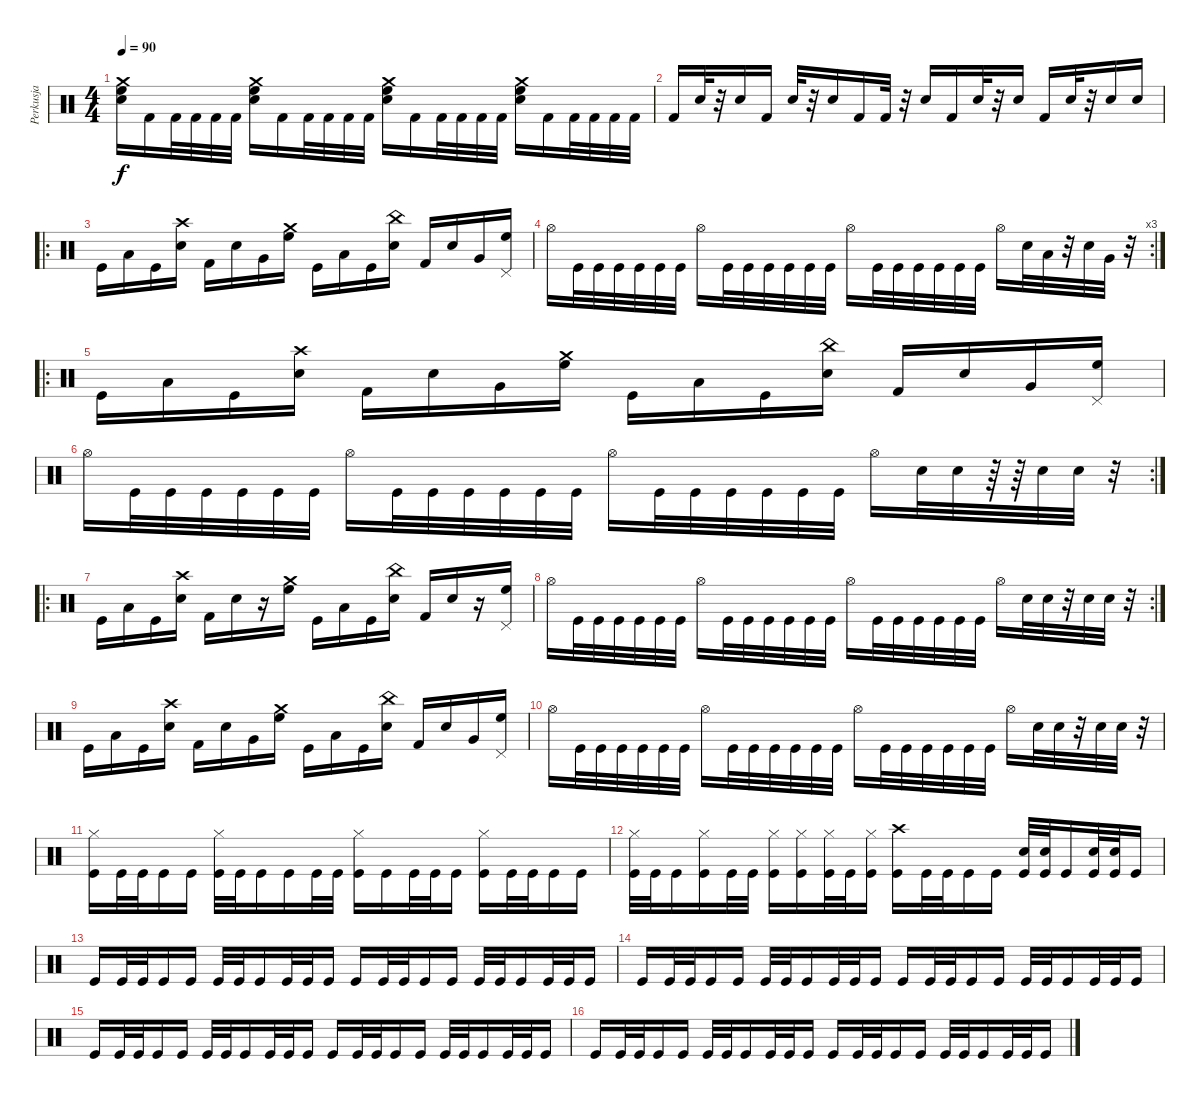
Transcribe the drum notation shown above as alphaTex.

\track ("Perkusja" "Perkusja") {instrument percussion}
\staff {score}
\articulation defaults
\ts (4 4)
\tempo 90
\clef neutral
\ks c
("Crash medium (hit)" "High Floor Tom (hit)" "Electric Snare (hit)").16{dy f} "Kick (hit) 2".16 "Kick (hit) 2".32 "Kick (hit) 2".32 "Kick (hit) 2".32 "Kick (hit) 2".32 ("Crash medium (hit)" "High Floor Tom (hit)" "Electric Snare (hit)").16 "Kick (hit) 2".16 "Kick (hit) 2".32 "Kick (hit) 2".32 "Kick (hit) 2".32 "Kick (hit) 2".32 ("Crash medium (hit)" "High Floor Tom (hit)" "Electric Snare (hit)").16 "Kick (hit) 2".16 "Kick (hit) 2".32 "Kick (hit) 2".32 "Kick (hit) 2".32 "Kick (hit) 2".32 ("Crash medium (hit)" "High Floor Tom (hit)" "Electric Snare (hit)").16 "Kick (hit) 2".16 "Kick (hit) 2".32 "Kick (hit) 2".32 "Kick (hit) 2".32 "Kick (hit) 2".32 |
"Kick (hit) 2".16 "Electric Snare (hit)".32 r.32 "Electric Snare (hit)".16 "Kick (hit) 2".16 "Electric Snare (hit)".32 r.32 "Electric Snare (hit)".16 "Kick (hit) 2".16 "Kick (hit) 2".32 r.32 "Electric Snare (hit)".16 "Kick (hit) 2".16 "Electric Snare (hit)".32 r.32 "Electric Snare (hit)".16 "Kick (hit) 2".16 "Electric Snare (hit)".32 r.32 "Electric Snare (hit)".16 "Electric Snare (hit)".16 |
\ro "Kick (hit)".16 "Low Tom (hit)".16 "Kick (hit)".16
("Crash high (hit)" "Electric Snare (hit)").16 "Kick (hit) 2".16 "Snare (hit) 2".16 "Very Low Tom (hit)".16 ("Crash medium (hit)" "High Floor Tom (hit)").16 "Kick (hit)".16 "Low Tom (hit)".16 "Kick (hit)".16 ("China (hit)" "Electric Snare (hit)").16 "Kick (hit) 2".16 "Snare (hit) 2".16 "Very Low Tom (hit)".16 ("Pedal Hi-Hat (hit)" "High Floor Tom (hit)").16 |
\rc 3 "Hi-Hat (open)".16 "Kick (hit)".32 "Kick (hit)".32 "Kick (hit)".32 "Kick (hit)".32 "Kick (hit)".32 "Kick (hit)".32 "Hi-Hat (open)".16 "Kick (hit)".32 "Kick (hit)".32 "Kick (hit)".32 "Kick (hit)".32 "Kick (hit)".32 "Kick (hit)".32 "Hi-Hat (open)".16 "Kick (hit)".32 "Kick (hit)".32 "Kick (hit)".32 "Kick (hit)".32 "Kick (hit)".32 "Kick (hit)".32 "Hi-Hat (open)".16 "Electric Snare (hit)".32 "Low Tom (hit)".32
r.32 "Electric Snare (hit)".32 "Very Low Tom (hit)".32 r.32 |
\ro "Kick (hit)".16 "Low Tom (hit)".16 "Kick (hit)".16
("Crash high (hit)" "Electric Snare (hit)").16 "Kick (hit) 2".16 "Snare (hit) 2".16 "Very Low Tom (hit)".16 ("Crash medium (hit)" "High Floor Tom (hit)").16 "Kick (hit)".16 "Low Tom (hit)".16 "Kick (hit)".16 ("China (hit)" "Electric Snare (hit)").16 "Kick (hit) 2".16 "Snare (hit) 2".16 "Very Low Tom (hit)".16 ("Pedal Hi-Hat (hit)" "High Floor Tom (hit)").16 |
\rc 2 "Hi-Hat (open)".16 "Kick (hit)".32 "Kick (hit)".32 "Kick (hit)".32 "Kick (hit)".32 "Kick (hit)".32 "Kick (hit)".32 "Hi-Hat (open)".16 "Kick (hit)".32 "Kick (hit)".32 "Kick (hit)".32 "Kick (hit)".32 "Kick (hit)".32 "Kick (hit)".32 "Hi-Hat (open)".16 "Kick (hit)".32 "Kick (hit)".32 "Kick (hit)".32 "Kick (hit)".32 "Kick (hit)".32 "Kick (hit)".32 "Hi-Hat (open)".16 "Snare (hit) 2".32 "Snare (hit) 2".32
r.64 r.64 "Snare (hit) 2".32 "Snare (hit) 2".32 r.32 |
\ro "Kick (hit)".16 "Low Tom (hit)".16 "Kick (hit)".16
("Crash high (hit)" "Electric Snare (hit)").16 "Kick (hit) 2".16 "Snare (hit) 2".16 r.16 ("Crash medium (hit)" "High Floor Tom (hit)").16 "Kick (hit)".16 "Low Tom (hit)".16 "Kick (hit)".16 ("China (hit)" "Electric Snare (hit)").16 "Kick (hit) 2".16 "Snare (hit) 2".16 r.16 ("Pedal Hi-Hat (hit)" "High Floor Tom (hit)").16 |
\rc 2 "Hi-Hat (open)".16 "Kick (hit)".32 "Kick (hit)".32 "Kick (hit)".32 "Kick (hit)".32 "Kick (hit)".32 "Kick (hit)".32 "Hi-Hat (open)".16 "Kick (hit)".32 "Kick (hit)".32 "Kick (hit)".32 "Kick (hit)".32 "Kick (hit)".32 "Kick (hit)".32 "Hi-Hat (open)".16 "Kick (hit)".32 "Kick (hit)".32 "Kick (hit)".32 "Kick (hit)".32 "Kick (hit)".32 "Kick (hit)".32 "Hi-Hat (open)".16 "Electric Snare (hit)".32 "Electric Snare (hit)".32
r.32 "Electric Snare (hit)".32 "Electric Snare (hit)".32 r.32 |
"Kick (hit)".16 "Low Tom (hit)".16 "Kick (hit)".16 ("Crash high (hit)" "Electric Snare (hit)").16 "Kick (hit) 2".16 "Snare (hit) 2".16 "Very Low Tom (hit)".16 ("Crash medium (hit)" "High Floor Tom (hit)").16 "Kick (hit)".16 "Low Tom (hit)".16 "Kick (hit)".16 ("China (hit)" "Electric Snare (hit)").16 "Kick (hit) 2".16 "Snare (hit) 2".16 "Very Low Tom (hit)".16 ("Pedal Hi-Hat (hit)" "High Floor Tom (hit)").16 |
"Hi-Hat (open)".16 "Kick (hit)".32 "Kick (hit)".32 "Kick (hit)".32 "Kick (hit)".32 "Kick (hit)".32 "Kick (hit)".32 "Hi-Hat (open)".16 "Kick (hit)".32 "Kick (hit)".32 "Kick (hit)".32 "Kick (hit)".32 "Kick (hit)".32 "Kick (hit)".32 "Hi-Hat (open)".16 "Kick (hit)".32 "Kick (hit)".32 "Kick (hit)".32 "Kick (hit)".32 "Kick (hit)".32 "Kick (hit)".32 "Hi-Hat (open)".16 "Electric Snare (hit)".32 "Electric Snare (hit)".32 r.32 "Electric Snare (hit)".32 "Electric Snare (hit)".32 r.32 |
("Hi-Hat (closed)" "Kick (hit)").16 "Kick (hit)".32 "Kick (hit)".32 "Kick (hit)".16 "Kick (hit)".16 ("Hi-Hat (closed)" "Kick (hit)").32 "Kick (hit)".32 "Kick (hit)".16 "Kick (hit)".16 "Kick (hit)".32 "Kick (hit)".32 ("Hi-Hat (closed)" "Kick (hit)").16 "Kick (hit)".16 "Kick (hit)".32 "Kick (hit)".32 "Kick (hit)".16 ("Hi-Hat (closed)" "Kick (hit)").16 "Kick (hit)".32 "Kick (hit)".32 "Kick (hit)".16 "Kick (hit)".16 |
("Hi-Hat (closed)" "Kick (hit)").32 "Kick (hit)".32 "Kick (hit)".16 ("Hi-Hat (closed)" "Kick (hit)").16 "Kick (hit)".32 "Kick (hit)".32 ("Hi-Hat (closed)" "Kick (hit)").16 ("Hi-Hat (closed)" "Kick (hit)").16 ("Hi-Hat (closed)" "Kick (hit)").32 "Kick (hit)".32 ("Hi-Hat (closed)" "Kick (hit)").16 ("Crash high (hit)" "Kick (hit)").16 "Kick (hit)".32 "Kick (hit)".32 "Kick (hit)".16 "Kick (hit)".16 ("Electric Snare (hit)" "Kick (hit)").32 ("Electric Snare (hit)" "Kick (hit)").32 "Kick (hit)".16 ("Electric Snare (hit)" "Kick (hit)").32 ("Electric Snare (hit)" "Kick (hit)").32 "Kick (hit)".16 |
"Kick (hit)".16 "Kick (hit)".32 "Kick (hit)".32 "Kick (hit)".16 "Kick (hit)".16 "Kick (hit)".32 "Kick (hit)".32 "Kick (hit)".16 "Kick (hit)".32 "Kick (hit)".32 "Kick (hit)".16 "Kick (hit)".16 "Kick (hit)".32 "Kick (hit)".32 "Kick (hit)".16 "Kick (hit)".16 "Kick (hit)".32 "Kick (hit)".32 "Kick (hit)".16 "Kick (hit)".32 "Kick (hit)".32 "Kick (hit)".16 |
"Kick (hit)".16 "Kick (hit)".32 "Kick (hit)".32 "Kick (hit)".16 "Kick (hit)".16 "Kick (hit)".32 "Kick (hit)".32 "Kick (hit)".16 "Kick (hit)".32 "Kick (hit)".32 "Kick (hit)".16 "Kick (hit)".16 "Kick (hit)".32 "Kick (hit)".32 "Kick (hit)".16 "Kick (hit)".16 "Kick (hit)".32 "Kick (hit)".32 "Kick (hit)".16 "Kick (hit)".32 "Kick (hit)".32 "Kick (hit)".16 |
"Kick (hit)".16 "Kick (hit)".32 "Kick (hit)".32 "Kick (hit)".16 "Kick (hit)".16 "Kick (hit)".32 "Kick (hit)".32 "Kick (hit)".16 "Kick (hit)".32 "Kick (hit)".32 "Kick (hit)".16 "Kick (hit)".16 "Kick (hit)".32 "Kick (hit)".32 "Kick (hit)".16 "Kick (hit)".16 "Kick (hit)".32 "Kick (hit)".32 "Kick (hit)".16 "Kick (hit)".32 "Kick (hit)".32 "Kick (hit)".16 |
"Kick (hit)".16 "Kick (hit)".32 "Kick (hit)".32 "Kick (hit)".16 "Kick (hit)".16 "Kick (hit)".32 "Kick (hit)".32 "Kick (hit)".16 "Kick (hit)".32 "Kick (hit)".32 "Kick (hit)".16 "Kick (hit)".16 "Kick (hit)".32 "Kick (hit)".32 "Kick (hit)".16 "Kick (hit)".16 "Kick (hit)".32 "Kick (hit)".32 "Kick (hit)".16 "Kick (hit)".32 "Kick (hit)".32 "Kick (hit)".16
